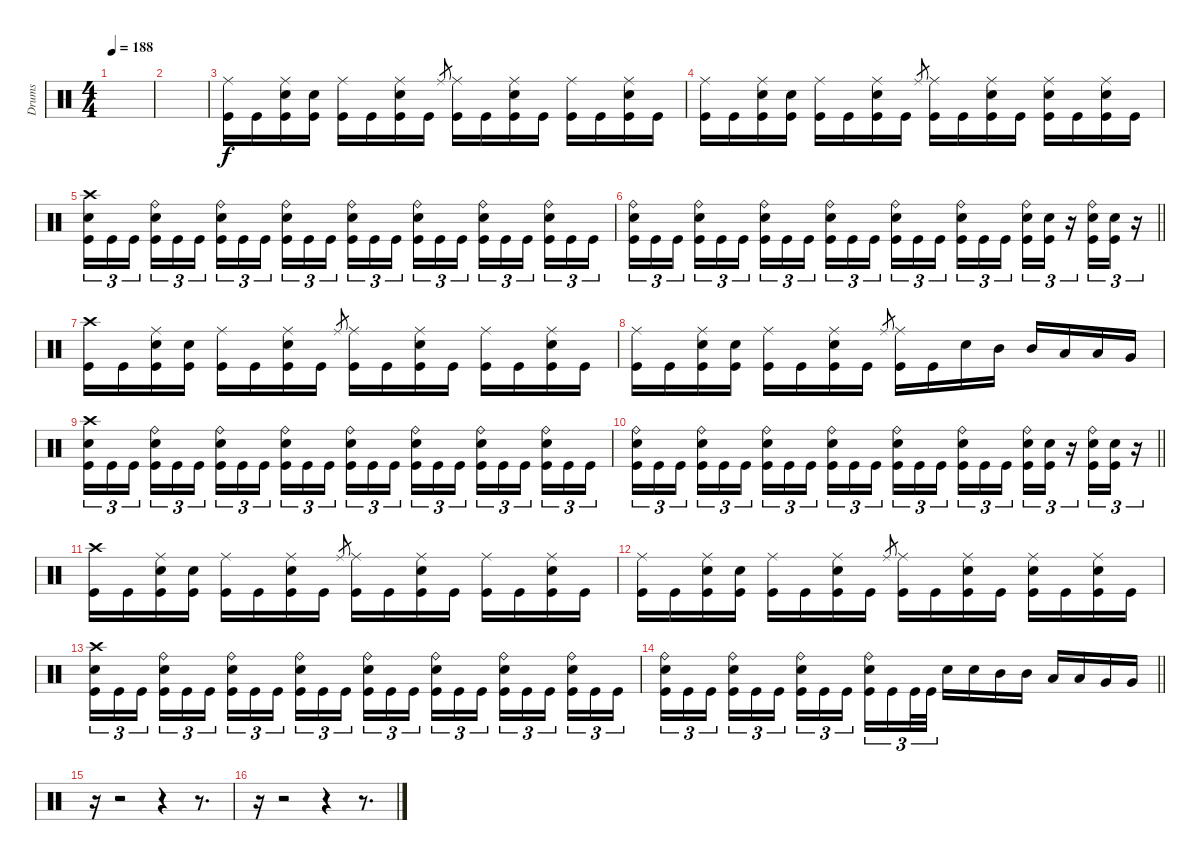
\track ("Drums" "Drums") {instrument percussion}
\staff
\articulation defaults
\ts (4 4)
\tempo 188
\clef neutral
\ks c
|
|
("Ride (middle)" "Kick (hit)").16 "Kick (hit)".16 ("Ride (middle)" "Electric Snare (hit)" "Kick (hit)").16 ("Electric Snare (hit)" "Kick (hit)").16 ("Ride (middle)" "Kick (hit)").16 "Kick (hit)".16 ("Ride (middle)" "Electric Snare (hit)" "Kick (hit)").16 "Kick (hit)".16 "Ride (middle)".8{gr} ("Ride (middle)" "Kick (hit)").16 "Kick (hit)".16 ("Ride (middle)" "Electric Snare (hit)" "Kick (hit)").16 "Kick (hit)".16 ("Ride (middle)" "Kick (hit)").16 "Kick (hit)".16 ("Ride (middle)" "Electric Snare (hit)" "Kick (hit)").16 "Kick (hit)".16 |
("Ride (middle)" "Kick (hit)").16 "Kick (hit)".16 ("Ride (middle)" "Electric Snare (hit)" "Kick (hit)").16 ("Electric Snare (hit)" "Kick (hit)").16 ("Ride (middle)" "Kick (hit)").16 "Kick (hit)".16 ("Ride (middle)" "Electric Snare (hit)" "Kick (hit)").16 "Kick (hit)".16 "Ride (middle)".8{gr} ("Ride (middle)" "Kick (hit)").16 "Kick (hit)".16 ("Ride (middle)" "Electric Snare (hit)" "Kick (hit)").16 "Kick (hit)".16 ("Ride (middle)" "Electric Snare (hit)" "Kick (hit)").16 "Kick (hit)".16 ("Ride (middle)" "Electric Snare (hit)" "Kick (hit)").16 "Kick (hit)".16 |
("Crash high (hit)" "Electric Snare (hit)" "Kick (hit)").16{tu (3 2)} "Kick (hit)".16{tu (3 2)} "Kick (hit)".16{tu (3 2) beam splitsecondary} ("Ride (bell)" "Electric Snare (hit)" "Kick (hit)").16{tu (3 2)} "Kick (hit)".16{tu (3 2)} "Kick (hit)".16{tu (3 2)} ("Ride (bell)" "Electric Snare (hit)" "Kick (hit)").16{tu (3 2)} "Kick (hit)".16{tu (3 2)} "Kick (hit)".16{tu (3 2) beam splitsecondary} ("Ride (bell)" "Electric Snare (hit)" "Kick (hit)").16{tu (3 2)} "Kick (hit)".16{tu (3 2)} "Kick (hit)".16{tu (3 2)} ("Ride (bell)" "Electric Snare (hit)" "Kick (hit)").16{tu (3 2)} "Kick (hit)".16{tu (3 2)} "Kick (hit)".16{tu (3 2) beam splitsecondary} ("Ride (bell)" "Electric Snare (hit)" "Kick (hit)").16{tu (3 2)} "Kick (hit)".16{tu (3 2)} "Kick (hit)".16{tu (3 2)} ("Ride (bell)" "Electric Snare (hit)" "Kick (hit)").16{tu (3 2)} "Kick (hit)".16{tu (3 2)} "Kick (hit)".16{tu (3 2) beam splitsecondary} ("Ride (bell)" "Electric Snare (hit)" "Kick (hit)").16{tu (3 2)} "Kick (hit)".16{tu (3 2)} "Kick (hit)".16{tu (3 2)} |
\barLineRight lightlight
("Ride (bell)" "Electric Snare (hit)" "Kick (hit)").16{tu (3 2)} "Kick (hit)".16{tu (3 2)} "Kick (hit)".16{tu (3 2) beam splitsecondary} ("Ride (bell)" "Electric Snare (hit)" "Kick (hit)").16{tu (3 2)} "Kick (hit)".16{tu (3 2)} "Kick (hit)".16{tu (3 2)} ("Ride (bell)" "Electric Snare (hit)" "Kick (hit)").16{tu (3 2)} "Kick (hit)".16{tu (3 2)} "Kick (hit)".16{tu (3 2) beam splitsecondary} ("Ride (bell)" "Electric Snare (hit)" "Kick (hit)").16{tu (3 2)} "Kick (hit)".16{tu (3 2)} "Kick (hit)".16{tu (3 2)} ("Ride (bell)" "Electric Snare (hit)" "Kick (hit)").16{tu (3 2)} "Kick (hit)".16{tu (3 2)} "Kick (hit)".16{tu (3 2) beam splitsecondary} ("Ride (bell)" "Electric Snare (hit)" "Kick (hit)").16{tu (3 2)} "Kick (hit)".16{tu (3 2)} "Kick (hit)".16{tu (3 2)} ("Ride (bell)" "Electric Snare (hit)" "Kick (hit)").16{tu (3 2)} ("Electric Snare (hit)" "Kick (hit)").16{tu (3 2)} r.16{tu (3 2)} ("Ride (bell)" "Electric Snare (hit)" "Kick (hit)").16{tu (3 2)} ("Electric Snare (hit)" "Kick (hit)").16{tu (3 2)} r.16{tu (3 2)} |
("Crash high (hit)" "Kick (hit)").16 "Kick (hit)".16 ("Ride (middle)" "Electric Snare (hit)" "Kick (hit)").16 ("Electric Snare (hit)" "Kick (hit)").16 ("Ride (middle)" "Kick (hit)").16 "Kick (hit)".16 ("Ride (middle)" "Electric Snare (hit)" "Kick (hit)").16 "Kick (hit)".16 "Ride (middle)".8{gr} ("Ride (middle)" "Kick (hit)").16 "Kick (hit)".16 ("Ride (middle)" "Electric Snare (hit)" "Kick (hit)").16 "Kick (hit)".16 ("Ride (middle)" "Kick (hit)").16 "Kick (hit)".16 ("Ride (middle)" "Electric Snare (hit)" "Kick (hit)").16 "Kick (hit)".16 |
("Ride (middle)" "Kick (hit)").16 "Kick (hit)".16 ("Ride (middle)" "Electric Snare (hit)" "Kick (hit)").16 ("Electric Snare (hit)" "Kick (hit)").16 ("Ride (middle)" "Kick (hit)").16 "Kick (hit)".16 ("Ride (middle)" "Electric Snare (hit)" "Kick (hit)").16 "Kick (hit)".16 "Ride (middle)".8{gr} ("Ride (middle)" "Kick (hit)").16 "Kick (hit)".16 "Electric Snare (hit)".16 "Mid Tom (hit)".16 "Mid Tom (hit)".16 "Low Tom (hit)".16 "Low Tom (hit)".16 "Very Low Tom (hit)".16 |
("Crash high (hit)" "Electric Snare (hit)" "Kick (hit)").16{tu (3 2)} "Kick (hit)".16{tu (3 2)} "Kick (hit)".16{tu (3 2) beam splitsecondary} ("Ride (bell)" "Electric Snare (hit)" "Kick (hit)").16{tu (3 2)} "Kick (hit)".16{tu (3 2)} "Kick (hit)".16{tu (3 2)} ("Ride (bell)" "Electric Snare (hit)" "Kick (hit)").16{tu (3 2)} "Kick (hit)".16{tu (3 2)} "Kick (hit)".16{tu (3 2) beam splitsecondary} ("Ride (bell)" "Electric Snare (hit)" "Kick (hit)").16{tu (3 2)} "Kick (hit)".16{tu (3 2)} "Kick (hit)".16{tu (3 2)} ("Ride (bell)" "Electric Snare (hit)" "Kick (hit)").16{tu (3 2)} "Kick (hit)".16{tu (3 2)} "Kick (hit)".16{tu (3 2) beam splitsecondary} ("Ride (bell)" "Electric Snare (hit)" "Kick (hit)").16{tu (3 2)} "Kick (hit)".16{tu (3 2)} "Kick (hit)".16{tu (3 2)} ("Ride (bell)" "Electric Snare (hit)" "Kick (hit)").16{tu (3 2)} "Kick (hit)".16{tu (3 2)} "Kick (hit)".16{tu (3 2) beam splitsecondary} ("Ride (bell)" "Electric Snare (hit)" "Kick (hit)").16{tu (3 2)} "Kick (hit)".16{tu (3 2)} "Kick (hit)".16{tu (3 2)} |
\barLineRight lightlight
("Ride (bell)" "Electric Snare (hit)" "Kick (hit)").16{tu (3 2)} "Kick (hit)".16{tu (3 2)} "Kick (hit)".16{tu (3 2) beam splitsecondary} ("Ride (bell)" "Electric Snare (hit)" "Kick (hit)").16{tu (3 2)} "Kick (hit)".16{tu (3 2)} "Kick (hit)".16{tu (3 2)} ("Ride (bell)" "Electric Snare (hit)" "Kick (hit)").16{tu (3 2)} "Kick (hit)".16{tu (3 2)} "Kick (hit)".16{tu (3 2) beam splitsecondary} ("Ride (bell)" "Electric Snare (hit)" "Kick (hit)").16{tu (3 2)} "Kick (hit)".16{tu (3 2)} "Kick (hit)".16{tu (3 2)} ("Ride (bell)" "Electric Snare (hit)" "Kick (hit)").16{tu (3 2)} "Kick (hit)".16{tu (3 2)} "Kick (hit)".16{tu (3 2) beam splitsecondary} ("Ride (bell)" "Electric Snare (hit)" "Kick (hit)").16{tu (3 2)} "Kick (hit)".16{tu (3 2)} "Kick (hit)".16{tu (3 2)} ("Ride (bell)" "Electric Snare (hit)" "Kick (hit)").16{tu (3 2)} ("Electric Snare (hit)" "Kick (hit)").16{tu (3 2)} r.16{tu (3 2)} ("Ride (bell)" "Electric Snare (hit)" "Kick (hit)").16{tu (3 2)} ("Electric Snare (hit)" "Kick (hit)").16{tu (3 2)} r.16{tu (3 2)} |
("Crash high (hit)" "Kick (hit)").16 "Kick (hit)".16 ("Ride (middle)" "Electric Snare (hit)" "Kick (hit)").16 ("Electric Snare (hit)" "Kick (hit)").16 ("Ride (middle)" "Kick (hit)").16 "Kick (hit)".16 ("Ride (middle)" "Electric Snare (hit)" "Kick (hit)").16 "Kick (hit)".16 "Ride (middle)".8{gr} ("Ride (middle)" "Kick (hit)").16 "Kick (hit)".16 ("Ride (middle)" "Electric Snare (hit)" "Kick (hit)").16 "Kick (hit)".16 ("Ride (middle)" "Kick (hit)").16 "Kick (hit)".16 ("Ride (middle)" "Electric Snare (hit)" "Kick (hit)").16 "Kick (hit)".16 |
("Ride (middle)" "Kick (hit)").16 "Kick (hit)".16 ("Ride (middle)" "Electric Snare (hit)" "Kick (hit)").16 ("Electric Snare (hit)" "Kick (hit)").16 ("Ride (middle)" "Kick (hit)").16 "Kick (hit)".16 ("Ride (middle)" "Electric Snare (hit)" "Kick (hit)").16 "Kick (hit)".16 "Ride (middle)".8{gr} ("Ride (middle)" "Kick (hit)").16 "Kick (hit)".16 ("Ride (middle)" "Electric Snare (hit)" "Kick (hit)").16 "Kick (hit)".16 ("Ride (middle)" "Electric Snare (hit)" "Kick (hit)").16 "Kick (hit)".16 ("Ride (middle)" "Electric Snare (hit)" "Kick (hit)").16 "Kick (hit)".16 |
("Crash high (hit)" "Electric Snare (hit)" "Kick (hit)").16{tu (3 2)} "Kick (hit)".16{tu (3 2)} "Kick (hit)".16{tu (3 2) beam splitsecondary} ("Ride (bell)" "Electric Snare (hit)" "Kick (hit)").16{tu (3 2)} "Kick (hit)".16{tu (3 2)} "Kick (hit)".16{tu (3 2)} ("Ride (bell)" "Electric Snare (hit)" "Kick (hit)").16{tu (3 2)} "Kick (hit)".16{tu (3 2)} "Kick (hit)".16{tu (3 2) beam splitsecondary} ("Ride (bell)" "Electric Snare (hit)" "Kick (hit)").16{tu (3 2)} "Kick (hit)".16{tu (3 2)} "Kick (hit)".16{tu (3 2)} ("Ride (bell)" "Electric Snare (hit)" "Kick (hit)").16{tu (3 2)} "Kick (hit)".16{tu (3 2)} "Kick (hit)".16{tu (3 2) beam splitsecondary} ("Ride (bell)" "Electric Snare (hit)" "Kick (hit)").16{tu (3 2)} "Kick (hit)".16{tu (3 2)} "Kick (hit)".16{tu (3 2)} ("Ride (bell)" "Electric Snare (hit)" "Kick (hit)").16{tu (3 2)} "Kick (hit)".16{tu (3 2)} "Kick (hit)".16{tu (3 2) beam splitsecondary} ("Ride (bell)" "Electric Snare (hit)" "Kick (hit)").16{tu (3 2)} "Kick (hit)".16{tu (3 2)} "Kick (hit)".16{tu (3 2)} |
\barLineRight lightlight
("Ride (bell)" "Electric Snare (hit)" "Kick (hit)").16{tu (3 2)} "Kick (hit)".16{tu (3 2)} "Kick (hit)".16{tu (3 2) beam splitsecondary} ("Ride (bell)" "Electric Snare (hit)" "Kick (hit)").16{tu (3 2)} "Kick (hit)".16{tu (3 2)} "Kick (hit)".16{tu (3 2)} ("Ride (bell)" "Electric Snare (hit)" "Kick (hit)").16{tu (3 2)} "Kick (hit)".16{tu (3 2)} "Kick (hit)".16{tu (3 2) beam splitsecondary} ("Ride (bell)" "Electric Snare (hit)" "Kick (hit)").16{tu (3 2)} "Kick (hit)".16{tu (3 2)} "Kick (hit)".32{tu (3 2)} "Kick (hit)".32{tu (3 2)} "Electric Snare (hit)".16 "Electric Snare (hit)".16 "Mid Tom (hit)".16 "Mid Tom (hit)".16 "Low Tom (hit)".16 "Low Tom (hit)".16 "Very Low Tom (hit)".16 "Very Low Tom (hit)".16 |
r.16 r.2 r.4 r.8{d} |
r.16 r.2 r.4 r.8{d}
